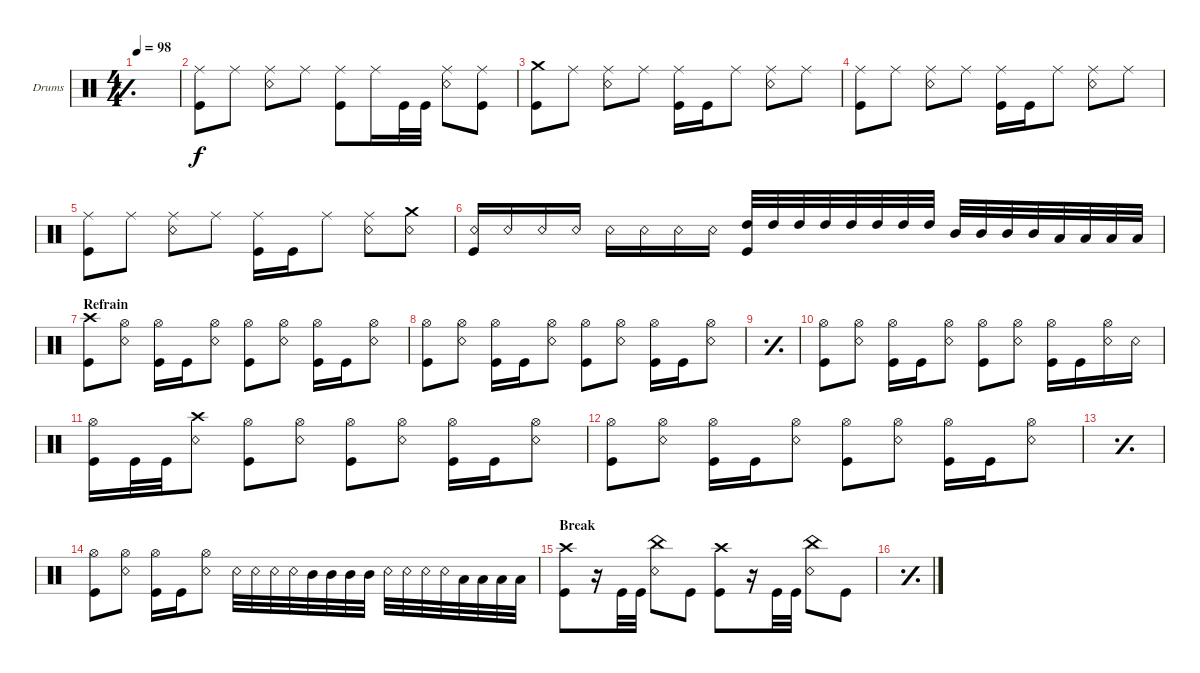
\defaultSystemsLayout 4
\bracketExtendMode groupsimilarinstruments
\firstSystemTrackNameOrientation horizontal
\otherSystemsTrackNameOrientation horizontal
\track ("Drumkit" "Drums") {instrument percussion}
\staff {score}
\articulation defaults
\ts (4 4)
\tempo 98
\clef neutral
\simile simple
\ks c
|
("Ride (middle)" "Kick (hit)").8 "Ride (middle)".8 ("Ride (middle)" "Snare (rim shot)").8 "Ride (middle)".8 ("Ride (middle)" "Kick (hit)").8 "Ride (middle)".16 "Kick (hit)".32 "Kick (hit)".32 ("Ride (middle)" "Snare (rim shot)").8 ("Ride (middle)" "Kick (hit)").8 |
("Crash medium (hit)" "Kick (hit)").8 "Ride (middle)".8 ("Snare (rim shot)" "Ride (middle)").8 "Ride (middle)".8 ("Ride (middle)" "Kick (hit)").16 "Kick (hit)".16 "Ride (middle)".8 ("Ride (middle)" "Snare (rim shot)").8 "Ride (middle)".8 |
("Kick (hit)" "Ride (middle)").8 "Ride (middle)".8 ("Snare (rim shot)" "Ride (middle)").8 "Ride (middle)".8 ("Ride (middle)" "Kick (hit)").16 "Kick (hit)".16 "Ride (middle)".8 ("Ride (middle)" "Snare (rim shot)").8 "Ride (middle)".8 |
("Kick (hit)" "Ride (middle)").8 "Ride (middle)".8 ("Snare (rim shot)" "Ride (middle)").8 "Ride (middle)".8 ("Ride (middle)" "Kick (hit)").16 "Kick (hit)".16 "Ride (middle)".8 ("Ride (middle)" "Snare (rim shot)").8 ("Snare (rim shot)" "Crash medium (hit)").8 |
("Snare (rim shot)" "Kick (hit)").16 "Snare (rim shot)".16 "Snare (rim shot)".16 "Snare (rim shot)".16 "Snare (rim shot)".16 "Snare (rim shot)".16 "Snare (rim shot)".16 "Snare (rim shot)".16 ("Kick (hit)" "High Tom (hit)").32 "High Tom (hit)".32 "High Tom (hit)".32 "High Tom (hit)".32 "High Tom (hit)".32 "High Tom (hit)".32 "High Tom (hit)".32 "High Tom (hit)".32 "Mid Tom (hit)".32 "Mid Tom (hit)".32 "Mid Tom (hit)".32 "Mid Tom (hit)".32 "Low Tom (hit)".32 "Low Tom (hit)".32 "Low Tom (hit)".32 "Low Tom (hit)".32 |
\section ("" "Refrain")
("Kick (hit)" "Crash high (hit)").8 ("Snare (rim shot)" "Hi-Hat (open)").8 ("Kick (hit)" "Hi-Hat (open)").16 "Kick (hit)".16 ("Snare (rim shot)" "Hi-Hat (open)").8 ("Kick (hit)" "Hi-Hat (open)").8 ("Snare (rim shot)" "Hi-Hat (open)").8 ("Kick (hit)" "Hi-Hat (open)").16 "Kick (hit)".16 ("Snare (rim shot)" "Hi-Hat (open)").8 |
("Kick (hit)" "Hi-Hat (open)").8 ("Snare (rim shot)" "Hi-Hat (open)").8 ("Kick (hit)" "Hi-Hat (open)").16 "Kick (hit)".16 ("Snare (rim shot)" "Hi-Hat (open)").8 ("Kick (hit)" "Hi-Hat (open)").8 ("Snare (rim shot)" "Hi-Hat (open)").8 ("Kick (hit)" "Hi-Hat (open)").16 "Kick (hit)".16 ("Snare (rim shot)" "Hi-Hat (open)").8 |
\simile simple
|
\simile none
("Kick (hit)" "Hi-Hat (open)").8 ("Snare (rim shot)" "Hi-Hat (open)").8 ("Kick (hit)" "Hi-Hat (open)").16 "Kick (hit)".16 ("Snare (rim shot)" "Hi-Hat (open)").8 ("Kick (hit)" "Hi-Hat (open)").8 ("Snare (rim shot)" "Hi-Hat (open)").8 ("Kick (hit)" "Hi-Hat (open)").16 "Kick (hit)".16 ("Snare (rim shot)" "Hi-Hat (open)").16 "Snare (rim shot)".16 |
("Kick (hit)" "Hi-Hat (open)").16 "Kick (hit)".32 "Kick (hit)".32 ("Snare (rim shot)" "Crash high (hit)").8 ("Kick (hit)" "Hi-Hat (open)").8 ("Snare (rim shot)" "Hi-Hat (open)").8 ("Kick (hit)" "Hi-Hat (open)").8 ("Snare (rim shot)" "Hi-Hat (open)").8 ("Kick (hit)" "Hi-Hat (open)").16 "Kick (hit)".16 ("Snare (rim shot)" "Hi-Hat (open)").8 |
("Kick (hit)" "Hi-Hat (open)").8 ("Snare (rim shot)" "Hi-Hat (open)").8 ("Kick (hit)" "Hi-Hat (open)").16 "Kick (hit)".16 ("Snare (rim shot)" "Hi-Hat (open)").8 ("Kick (hit)" "Hi-Hat (open)").8 ("Snare (rim shot)" "Hi-Hat (open)").8 ("Kick (hit)" "Hi-Hat (open)").16 "Kick (hit)".16 ("Snare (rim shot)" "Hi-Hat (open)").8 |
\simile simple
|
\simile none
("Kick (hit)" "Hi-Hat (open)").8 ("Snare (rim shot)" "Hi-Hat (open)").8 ("Kick (hit)" "Hi-Hat (open)").16 "Kick (hit)".16 ("Snare (rim shot)" "Hi-Hat (open)").8 "Snare (rim shot)".32 "Snare (rim shot)".32 "Snare (rim shot)".32 "Snare (rim shot)".32 "Mid Tom (hit)".32 "Mid Tom (hit)".32 "Mid Tom (hit)".32 "Mid Tom (hit)".32 "Snare (rim shot)".32 "Snare (rim shot)".32 "Snare (rim shot)".32 "Snare (rim shot)".32 "Low Tom (hit)".32 "Low Tom (hit)".32 "Low Tom (hit)".32 "Low Tom (hit)".32 |
\section ("" "Break")
("Kick (hit)" "Crash high (hit)").8 r.16 "Kick (hit)".32 "Kick (hit)".32 ("China (hit)" "Snare (rim shot)").8 "Kick (hit)".8 ("Crash high (hit)" "Kick (hit)").8 r.16 "Kick (hit)".32 "Kick (hit)".32 ("China (hit)" "Snare (rim shot)").8 "Kick (hit)".8 |
\simile simple
